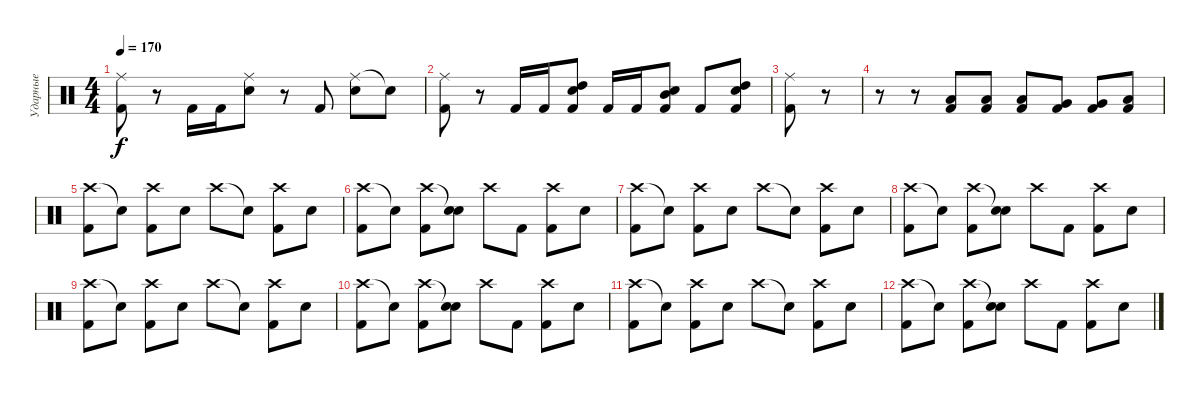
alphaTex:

\track ("Ударные" "Ударные") {instrument percussion}
\staff {score}
\articulation defaults
\ts (4 4)
\tempo 170
\clef neutral
\ks c
("Ride (middle)" "Kick (hit) 2").8{dy f} r.8 "Kick (hit) 2".16 "Kick (hit) 2".16 ("Ride (middle)" "Snare (hit) 2").8 r.8 "Kick (hit) 2".8 ("Ride (middle)" "Snare (hit) 2").8 "Snare (hit)"{t}.8 |
("Ride (middle)" "Kick (hit) 2").8 r.8 "Kick (hit) 2".16 "Kick (hit) 2".16 ("Snare (hit) 2" "Kick (hit) 2" "High Tom (hit)").8 "Kick (hit) 2".16 "Kick (hit) 2".16 ("Snare (hit) 2" "Kick (hit) 2" "Mid Tom (hit)").8 "Kick (hit) 2".8 ("Snare (hit) 2" "Kick (hit) 2" "High Tom (hit)").8 |
("Ride (middle)" "Kick (hit) 2").8 r.8 |
r.8 r.8 ("Kick (hit) 2" "Low Floor Tom (hit)").8 ("Kick (hit) 2" "Low Floor Tom (hit)").8 ("Kick (hit) 2" "Low Floor Tom (hit)").8 ("Kick (hit) 2" "Very Low Tom (hit)").8 ("Kick (hit) 2" "Very Low Tom (hit)").8 ("Kick (hit) 2" "Low Tom (hit)").8 |
("Crash high (hit)" "Kick (hit) 2").8 "Snare (hit)"{t}.8 ("Crash high (hit)" "Kick (hit) 2").8 "Snare (hit) 2".8 "Crash high (hit)".8 "Snare (hit)"{t}.8 ("Crash high (hit)" "Kick (hit) 2").8 "Snare (hit) 2".8 |
("Crash high (hit)" "Kick (hit) 2").8 "Snare (hit)"{t}.8 ("Crash high (hit)" "Kick (hit) 2").8 ("Snare (hit)"{t} "Snare (hit) 2").8 "Crash high (hit)".8 "Kick (hit) 2".8 ("Crash high (hit)" "Kick (hit) 2").8 "Snare (hit) 2".8 |
("Crash high (hit)" "Kick (hit) 2").8 "Snare (hit)"{t}.8 ("Crash high (hit)" "Kick (hit) 2").8 "Snare (hit) 2".8 "Crash high (hit)".8 "Snare (hit)"{t}.8 ("Crash high (hit)" "Kick (hit) 2").8 "Snare (hit) 2".8 |
("Crash high (hit)" "Kick (hit) 2").8 "Snare (hit)"{t}.8 ("Crash high (hit)" "Kick (hit) 2").8 ("Snare (hit)"{t} "Snare (hit) 2").8 "Crash high (hit)".8 "Kick (hit) 2".8 ("Crash high (hit)" "Kick (hit) 2").8 "Snare (hit) 2".8 |
("Crash high (hit)" "Kick (hit) 2").8 "Snare (hit)"{t}.8 ("Crash high (hit)" "Kick (hit) 2").8 "Snare (hit) 2".8 "Crash high (hit)".8 "Snare (hit)"{t}.8 ("Crash high (hit)" "Kick (hit) 2").8 "Snare (hit) 2".8 |
("Crash high (hit)" "Kick (hit) 2").8 "Snare (hit)"{t}.8 ("Crash high (hit)" "Kick (hit) 2").8 ("Snare (hit)"{t} "Snare (hit) 2").8 "Crash high (hit)".8 "Kick (hit) 2".8 ("Crash high (hit)" "Kick (hit) 2").8 "Snare (hit) 2".8 |
("Crash high (hit)" "Kick (hit) 2").8 "Snare (hit)"{t}.8 ("Crash high (hit)" "Kick (hit) 2").8 "Snare (hit) 2".8 "Crash high (hit)".8 "Snare (hit)"{t}.8 ("Crash high (hit)" "Kick (hit) 2").8 "Snare (hit) 2".8 |
("Crash high (hit)" "Kick (hit) 2").8 "Snare (hit)"{t}.8 ("Crash high (hit)" "Kick (hit) 2").8 ("Snare (hit)"{t} "Snare (hit) 2").8 "Crash high (hit)".8 "Kick (hit) 2".8 ("Crash high (hit)" "Kick (hit) 2").8 "Snare (hit) 2".8
